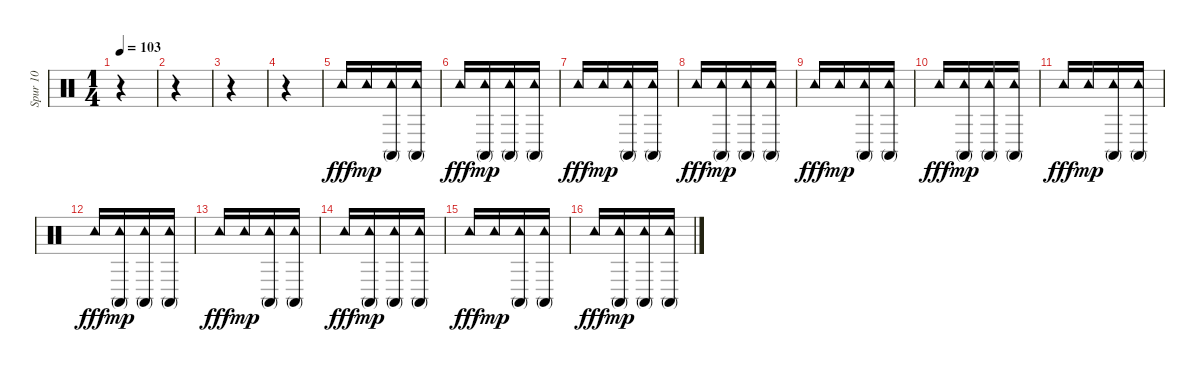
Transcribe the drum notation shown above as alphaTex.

\track ("Spur 10" "Spur 10") {instrument percussion}
\staff {score}
\articulation defaults
\ts (1 4)
\tempo 103
\clef neutral
\ks c
r.4{dy fff} |
r.4 |
r.4 |
r.4 |
"Tambourine (hit)".16 "Tambourine (hit)".16{dy mp} ("Tambourine (hit)" "Conga high (mute)").16 ("Conga high (mute)" "Tambourine (hit)").16 |
"Tambourine (hit)".16{dy fff} ("Tambourine (hit)" "Conga high (mute)").16{dy mp} ("Tambourine (hit)" "Conga high (mute)").16 ("Tambourine (hit)" "Conga high (mute)").16 |
"Tambourine (hit)".16{dy fff} "Tambourine (hit)".16{dy mp} ("Tambourine (hit)" "Conga high (mute)").16 ("Tambourine (hit)" "Conga high (mute)").16 |
"Tambourine (hit)".16{dy fff} ("Tambourine (hit)" "Conga high (mute)").16{dy mp} ("Tambourine (hit)" "Conga high (mute)").16 ("Tambourine (hit)" "Conga high (mute)").16 |
"Tambourine (hit)".16{dy fff} "Tambourine (hit)".16{dy mp} ("Tambourine (hit)" "Conga high (mute)").16 ("Conga high (mute)" "Tambourine (hit)").16 |
"Tambourine (hit)".16{dy fff} ("Tambourine (hit)" "Conga high (mute)").16{dy mp} ("Tambourine (hit)" "Conga high (mute)").16 ("Tambourine (hit)" "Conga high (mute)").16 |
"Tambourine (hit)".16{dy fff} "Tambourine (hit)".16{dy mp} ("Tambourine (hit)" "Conga high (mute)").16 ("Tambourine (hit)" "Conga high (mute)").16 |
"Tambourine (hit)".16{dy fff} ("Tambourine (hit)" "Conga high (mute)").16{dy mp} ("Tambourine (hit)" "Conga high (mute)").16 ("Tambourine (hit)" "Conga high (mute)").16 |
"Tambourine (hit)".16{dy fff} "Tambourine (hit)".16{dy mp} ("Tambourine (hit)" "Conga high (mute)").16 ("Conga high (mute)" "Tambourine (hit)").16 |
"Tambourine (hit)".16{dy fff} ("Tambourine (hit)" "Conga high (mute)").16{dy mp} ("Tambourine (hit)" "Conga high (mute)").16 ("Tambourine (hit)" "Conga high (mute)").16 |
"Tambourine (hit)".16{dy fff} "Tambourine (hit)".16{dy mp} ("Tambourine (hit)" "Conga high (mute)").16 ("Tambourine (hit)" "Conga high (mute)").16 |
"Tambourine (hit)".16{dy fff} ("Tambourine (hit)" "Conga high (mute)").16{dy mp} ("Tambourine (hit)" "Conga high (mute)").16 ("Tambourine (hit)" "Conga high (mute)").16
